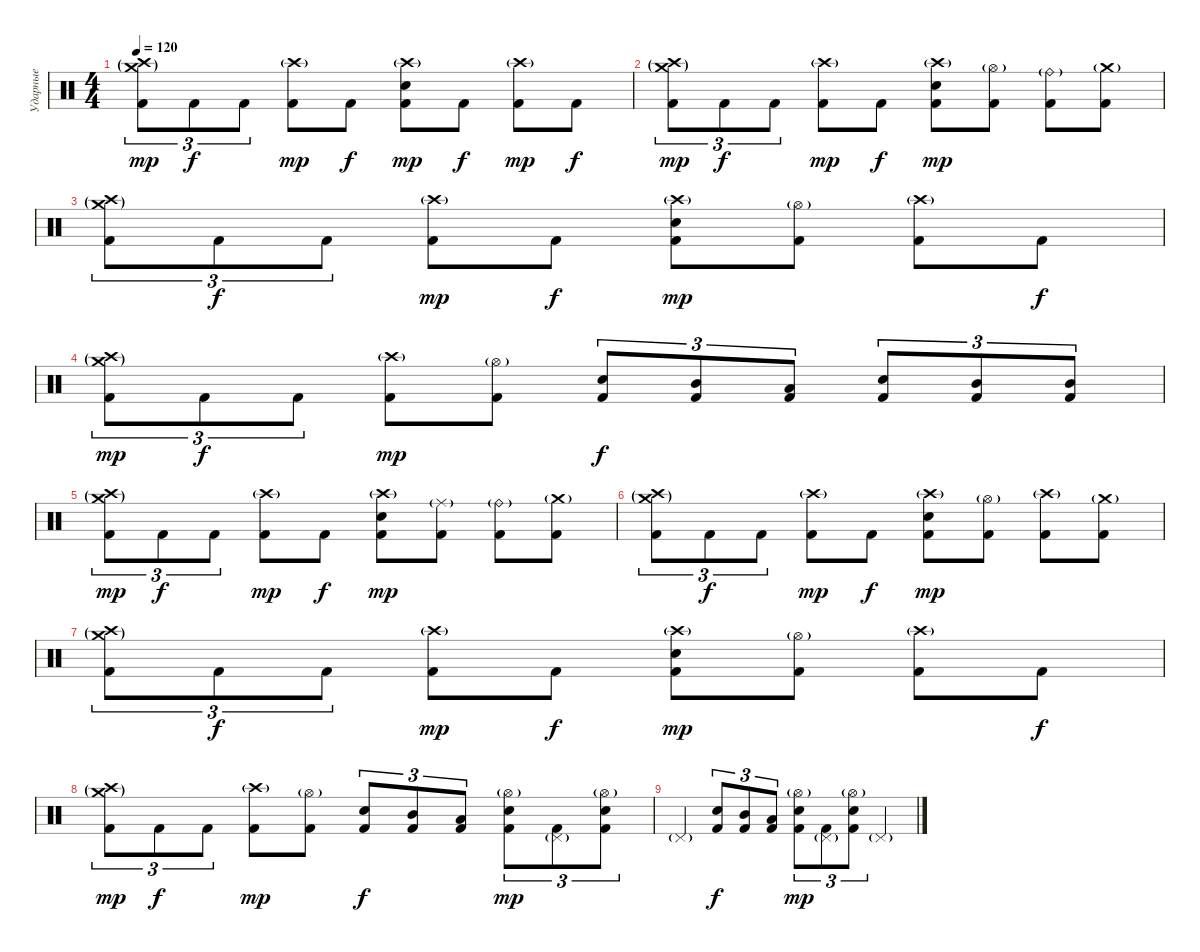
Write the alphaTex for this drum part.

\track ("Ударные" "Ударные") {instrument percussion}
\staff {score}
\articulation defaults
\ts (4 4)
\tempo 120
\clef neutral
\ks c
("Crash high (hit)"{g} "Crash medium (hit)"{g} "Kick (hit) 2").8{tu (3 2) dy mp} "Kick (hit) 2".8{tu (3 2) dy f} "Kick (hit) 2".8{tu (3 2)} ("Crash high (hit)"{g} "Kick (hit) 2").8{dy mp} "Kick (hit) 2".8{dy f} ("Crash high (hit)"{g} "Electric Snare (hit)" "Kick (hit) 2").8{dy mp} "Kick (hit) 2".8{dy f} ("Crash high (hit)"{g} "Kick (hit) 2").8{dy mp} "Kick (hit) 2".8{dy f} |
("Crash high (hit)"{g} "Crash medium (hit)"{g} "Kick (hit) 2").8{tu (3 2) dy mp} "Kick (hit) 2".8{tu (3 2) dy f} "Kick (hit) 2".8{tu (3 2)} ("Crash high (hit)"{g} "Kick (hit) 2").8{dy mp} "Kick (hit) 2".8{dy f} ("Crash high (hit)"{g} "Electric Snare (hit)" "Kick (hit) 2").8{dy mp} ("Hi-Hat (open)"{g} "Kick (hit) 2").8 ("Ride (bell)"{g} "Kick (hit) 2").8 ("Crash medium (hit)"{g} "Kick (hit) 2").8 |
("Crash high (hit)"{g} "Crash medium (hit)"{g} "Kick (hit) 2").8{tu (3 2)} "Kick (hit) 2".8{tu (3 2) dy f} "Kick (hit) 2".8{tu (3 2)} ("Crash high (hit)"{g} "Kick (hit) 2").8{dy mp} "Kick (hit) 2".8{dy f} ("Crash high (hit)"{g} "Electric Snare (hit)" "Kick (hit) 2").8{dy mp} ("Hi-Hat (open)"{g} "Kick (hit) 2").8 ("Crash high (hit)"{g} "Kick (hit) 2").8 "Kick (hit) 2".8{dy f} |
("Crash high (hit)"{g} "Crash medium (hit)"{g} "Kick (hit) 2").8{tu (3 2) dy mp} "Kick (hit) 2".8{tu (3 2) dy f} "Kick (hit) 2".8{tu (3 2)} ("Crash high (hit)"{g} "Kick (hit) 2").8{dy mp} ("Hi-Hat (open)"{g} "Kick (hit) 2").8 ("Electric Snare (hit)" "Kick (hit) 2").8{tu (3 2) dy f} ("Mid Tom (hit)" "Kick (hit) 2").8{tu (3 2)} ("Low Tom (hit)" "Kick (hit) 2").8{tu (3 2)} ("Electric Snare (hit)" "Kick (hit) 2").8{tu (3 2)} ("Mid Tom (hit)" "Kick (hit) 2").8{tu (3 2)} ("Mid Tom (hit)" "Kick (hit) 2").8{tu (3 2)} |
("Crash high (hit)"{g} "Crash medium (hit)"{g} "Kick (hit) 2").8{tu (3 2) dy mp} "Kick (hit) 2".8{tu (3 2) dy f} "Kick (hit) 2".8{tu (3 2)} ("Crash high (hit)"{g} "Kick (hit) 2").8{dy mp} "Kick (hit) 2".8{dy f} ("Crash high (hit)"{g} "Electric Snare (hit)" "Kick (hit) 2").8{dy mp} ("Ride (middle)"{g} "Kick (hit) 2").8 ("Ride (bell)"{g} "Kick (hit) 2").8 ("Crash medium (hit)"{g} "Kick (hit) 2").8 |
("Crash high (hit)"{g} "Crash medium (hit)"{g} "Kick (hit) 2").8{tu (3 2)} "Kick (hit) 2".8{tu (3 2) dy f} "Kick (hit) 2".8{tu (3 2)} ("Crash high (hit)"{g} "Kick (hit) 2").8{dy mp} "Kick (hit) 2".8{dy f} ("Crash high (hit)"{g} "Electric Snare (hit)" "Kick (hit) 2").8{dy mp} ("Hi-Hat (open)"{g} "Kick (hit) 2").8 ("Crash high (hit)"{g} "Kick (hit) 2").8 ("Crash medium (hit)"{g} "Kick (hit) 2").8 |
("Crash high (hit)"{g} "Crash medium (hit)"{g} "Kick (hit) 2").8{tu (3 2)} "Kick (hit) 2".8{tu (3 2) dy f} "Kick (hit) 2".8{tu (3 2)} ("Crash high (hit)"{g} "Kick (hit) 2").8{dy mp} "Kick (hit) 2".8{dy f} ("Crash high (hit)"{g} "Electric Snare (hit)" "Kick (hit) 2").8{dy mp} ("Hi-Hat (open)"{g} "Kick (hit) 2").8 ("Crash high (hit)"{g} "Kick (hit) 2").8 "Kick (hit) 2".8{dy f} |
("Crash high (hit)"{g} "Crash medium (hit)"{g} "Kick (hit) 2").8{tu (3 2) dy mp} "Kick (hit) 2".8{tu (3 2) dy f} "Kick (hit) 2".8{tu (3 2)} ("Crash high (hit)"{g} "Kick (hit) 2").8{dy mp} ("Hi-Hat (open)"{g} "Kick (hit) 2").8 ("Electric Snare (hit)" "Kick (hit) 2").8{tu (3 2) dy f} ("Mid Tom (hit)" "Kick (hit) 2").8{tu (3 2)} ("Low Tom (hit)" "Kick (hit) 2").8{tu (3 2)} ("Hi-Hat (open)"{g} "Electric Snare (hit)" "Kick (hit) 2").8{tu (3 2) dy mp} ("Pedal Hi-Hat (hit)"{g} "Kick (hit) 2").8{tu (3 2)} ("Hi-Hat (open)"{g} "Electric Snare (hit)" "Kick (hit) 2").8{tu (3 2)} |
"Pedal Hi-Hat (hit)"{g}.4 ("Electric Snare (hit)" "Kick (hit) 2").8{tu (3 2) dy f} ("Mid Tom (hit)" "Kick (hit) 2").8{tu (3 2)} ("Low Tom (hit)" "Kick (hit) 2").8{tu (3 2)} ("Hi-Hat (open)"{g} "Electric Snare (hit)" "Kick (hit) 2").8{tu (3 2) dy mp} ("Pedal Hi-Hat (hit)"{g} "Kick (hit) 2").8{tu (3 2)} ("Hi-Hat (open)"{g} "Electric Snare (hit)" "Kick (hit) 2").8{tu (3 2)} "Pedal Hi-Hat (hit)"{g}.4
